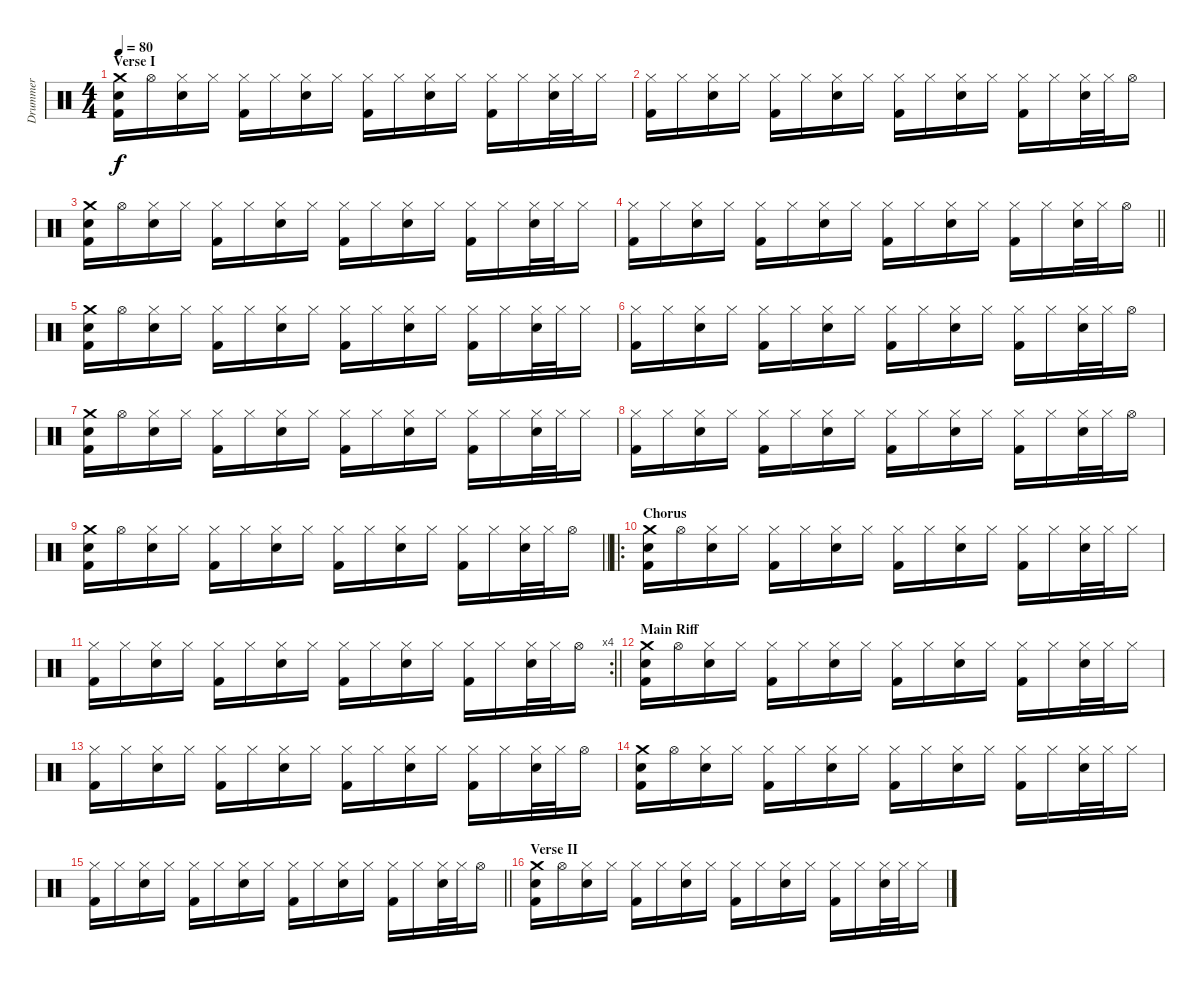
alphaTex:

\track ("Drummer" "Drummer") {instrument percussion}
\staff {score}
\articulation defaults
\ts (4 4)
\section ("" "Verse I")
\tempo 80
\clef neutral
\ks c
("Kick (hit) 2" "Electric Snare (hit)" "Crash medium (hit)").16{dy f} "Hi-Hat (open)".16 ("Electric Snare (hit)" "Hi-Hat (closed)").16 "Hi-Hat (closed)".16 ("Kick (hit) 2" "Hi-Hat (closed)").16 "Hi-Hat (closed)".16 ("Electric Snare (hit)" "Hi-Hat (closed)").16 "Hi-Hat (closed)".16 ("Kick (hit) 2" "Hi-Hat (closed)").16 "Hi-Hat (closed)".16 ("Electric Snare (hit)" "Hi-Hat (closed)").16 "Hi-Hat (closed)".16 ("Kick (hit) 2" "Hi-Hat (closed)").16 "Hi-Hat (closed)".16 ("Electric Snare (hit)" "Hi-Hat (closed)").32 "Hi-Hat (closed)".32 "Hi-Hat (closed)".16 |
("Kick (hit) 2" "Hi-Hat (closed)").16 "Hi-Hat (closed)".16 ("Electric Snare (hit)" "Hi-Hat (closed)").16 "Hi-Hat (closed)".16 ("Kick (hit) 2" "Hi-Hat (closed)").16 "Hi-Hat (closed)".16 ("Electric Snare (hit)" "Hi-Hat (closed)").16 "Hi-Hat (closed)".16 ("Kick (hit) 2" "Hi-Hat (closed)").16 "Hi-Hat (closed)".16 ("Electric Snare (hit)" "Hi-Hat (closed)").16 "Hi-Hat (closed)".16 ("Kick (hit) 2" "Hi-Hat (closed)").16 "Hi-Hat (closed)".16 ("Electric Snare (hit)" "Hi-Hat (closed)").32 "Hi-Hat (closed)".32 "Hi-Hat (open)".16 |
("Kick (hit) 2" "Electric Snare (hit)" "Crash medium (hit)").16 "Hi-Hat (open)".16 ("Electric Snare (hit)" "Hi-Hat (closed)").16 "Hi-Hat (closed)".16 ("Kick (hit) 2" "Hi-Hat (closed)").16 "Hi-Hat (closed)".16 ("Electric Snare (hit)" "Hi-Hat (closed)").16 "Hi-Hat (closed)".16 ("Kick (hit) 2" "Hi-Hat (closed)").16 "Hi-Hat (closed)".16 ("Electric Snare (hit)" "Hi-Hat (closed)").16 "Hi-Hat (closed)".16 ("Kick (hit) 2" "Hi-Hat (closed)").16 "Hi-Hat (closed)".16 ("Electric Snare (hit)" "Hi-Hat (closed)").32 "Hi-Hat (closed)".32 "Hi-Hat (closed)".16 |
\barLineRight lightlight
("Kick (hit) 2" "Hi-Hat (closed)").16 "Hi-Hat (closed)".16 ("Electric Snare (hit)" "Hi-Hat (closed)").16 "Hi-Hat (closed)".16 ("Kick (hit) 2" "Hi-Hat (closed)").16 "Hi-Hat (closed)".16 ("Electric Snare (hit)" "Hi-Hat (closed)").16 "Hi-Hat (closed)".16 ("Kick (hit) 2" "Hi-Hat (closed)").16 "Hi-Hat (closed)".16 ("Electric Snare (hit)" "Hi-Hat (closed)").16 "Hi-Hat (closed)".16 ("Kick (hit) 2" "Hi-Hat (closed)").16 "Hi-Hat (closed)".16 ("Electric Snare (hit)" "Hi-Hat (closed)").32 "Hi-Hat (closed)".32 "Hi-Hat (open)".16 |
("Kick (hit) 2" "Electric Snare (hit)" "Crash medium (hit)").16 "Hi-Hat (open)".16 ("Electric Snare (hit)" "Hi-Hat (closed)").16 "Hi-Hat (closed)".16 ("Kick (hit) 2" "Hi-Hat (closed)").16 "Hi-Hat (closed)".16 ("Electric Snare (hit)" "Hi-Hat (closed)").16 "Hi-Hat (closed)".16 ("Kick (hit) 2" "Hi-Hat (closed)").16 "Hi-Hat (closed)".16 ("Electric Snare (hit)" "Hi-Hat (closed)").16 "Hi-Hat (closed)".16 ("Kick (hit) 2" "Hi-Hat (closed)").16 "Hi-Hat (closed)".16 ("Electric Snare (hit)" "Hi-Hat (closed)").32 "Hi-Hat (closed)".32 "Hi-Hat (closed)".16 |
("Kick (hit) 2" "Hi-Hat (closed)").16 "Hi-Hat (closed)".16 ("Electric Snare (hit)" "Hi-Hat (closed)").16 "Hi-Hat (closed)".16 ("Kick (hit) 2" "Hi-Hat (closed)").16 "Hi-Hat (closed)".16 ("Electric Snare (hit)" "Hi-Hat (closed)").16 "Hi-Hat (closed)".16 ("Kick (hit) 2" "Hi-Hat (closed)").16 "Hi-Hat (closed)".16 ("Electric Snare (hit)" "Hi-Hat (closed)").16 "Hi-Hat (closed)".16 ("Kick (hit) 2" "Hi-Hat (closed)").16 "Hi-Hat (closed)".16 ("Electric Snare (hit)" "Hi-Hat (closed)").32 "Hi-Hat (closed)".32 "Hi-Hat (open)".16 |
("Kick (hit) 2" "Electric Snare (hit)" "Crash medium (hit)").16 "Hi-Hat (open)".16 ("Electric Snare (hit)" "Hi-Hat (closed)").16 "Hi-Hat (closed)".16 ("Kick (hit) 2" "Hi-Hat (closed)").16 "Hi-Hat (closed)".16 ("Electric Snare (hit)" "Hi-Hat (closed)").16 "Hi-Hat (closed)".16 ("Kick (hit) 2" "Hi-Hat (closed)").16 "Hi-Hat (closed)".16 ("Electric Snare (hit)" "Hi-Hat (closed)").16 "Hi-Hat (closed)".16 ("Kick (hit) 2" "Hi-Hat (closed)").16 "Hi-Hat (closed)".16 ("Electric Snare (hit)" "Hi-Hat (closed)").32 "Hi-Hat (closed)".32 "Hi-Hat (closed)".16 |
("Kick (hit) 2" "Hi-Hat (closed)").16 "Hi-Hat (closed)".16 ("Electric Snare (hit)" "Hi-Hat (closed)").16 "Hi-Hat (closed)".16 ("Kick (hit) 2" "Hi-Hat (closed)").16 "Hi-Hat (closed)".16 ("Electric Snare (hit)" "Hi-Hat (closed)").16 "Hi-Hat (closed)".16 ("Kick (hit) 2" "Hi-Hat (closed)").16 "Hi-Hat (closed)".16 ("Electric Snare (hit)" "Hi-Hat (closed)").16 "Hi-Hat (closed)".16 ("Kick (hit) 2" "Hi-Hat (closed)").16 "Hi-Hat (closed)".16 ("Electric Snare (hit)" "Hi-Hat (closed)").32 "Hi-Hat (closed)".32 "Hi-Hat (open)".16 |
\barLineRight lightlight
("Kick (hit) 2" "Electric Snare (hit)" "Crash medium (hit)").16 "Hi-Hat (open)".16 ("Electric Snare (hit)" "Hi-Hat (closed)").16 "Hi-Hat (closed)".16 ("Kick (hit) 2" "Hi-Hat (closed)").16 "Hi-Hat (closed)".16 ("Electric Snare (hit)" "Hi-Hat (closed)").16 "Hi-Hat (closed)".16 ("Kick (hit) 2" "Hi-Hat (closed)").16 "Hi-Hat (closed)".16 ("Electric Snare (hit)" "Hi-Hat (closed)").16 "Hi-Hat (closed)".16 ("Kick (hit) 2" "Hi-Hat (closed)").16 "Hi-Hat (closed)".16 ("Electric Snare (hit)" "Hi-Hat (closed)").32 "Hi-Hat (closed)".32 "Hi-Hat (open)".16 |
\ro
\section ("" "Chorus")
("Kick (hit) 2" "Electric Snare (hit)" "Crash medium (hit)").16 "Hi-Hat (open)".16 ("Electric Snare (hit)" "Hi-Hat (closed)").16 "Hi-Hat (closed)".16 ("Kick (hit) 2" "Hi-Hat (closed)").16 "Hi-Hat (closed)".16 ("Electric Snare (hit)" "Hi-Hat (closed)").16 "Hi-Hat (closed)".16 ("Kick (hit) 2" "Hi-Hat (closed)").16 "Hi-Hat (closed)".16 ("Electric Snare (hit)" "Hi-Hat (closed)").16 "Hi-Hat (closed)".16 ("Kick (hit) 2" "Hi-Hat (closed)").16 "Hi-Hat (closed)".16 ("Electric Snare (hit)" "Hi-Hat (closed)").32 "Hi-Hat (closed)".32 "Hi-Hat (closed)".16 |
\rc 4
\barLineRight lightlight
("Kick (hit) 2" "Hi-Hat (closed)").16 "Hi-Hat (closed)".16 ("Electric Snare (hit)" "Hi-Hat (closed)").16 "Hi-Hat (closed)".16 ("Kick (hit) 2" "Hi-Hat (closed)").16 "Hi-Hat (closed)".16 ("Electric Snare (hit)" "Hi-Hat (closed)").16 "Hi-Hat (closed)".16 ("Kick (hit) 2" "Hi-Hat (closed)").16 "Hi-Hat (closed)".16 ("Electric Snare (hit)" "Hi-Hat (closed)").16 "Hi-Hat (closed)".16 ("Kick (hit) 2" "Hi-Hat (closed)").16 "Hi-Hat (closed)".16 ("Electric Snare (hit)" "Hi-Hat (closed)").32 "Hi-Hat (closed)".32 "Hi-Hat (open)".16 |
\section ("" "Main Riff")
("Kick (hit) 2" "Electric Snare (hit)" "Crash medium (hit)").16 "Hi-Hat (open)".16 ("Electric Snare (hit)" "Hi-Hat (closed)").16 "Hi-Hat (closed)".16 ("Kick (hit) 2" "Hi-Hat (closed)").16 "Hi-Hat (closed)".16 ("Electric Snare (hit)" "Hi-Hat (closed)").16 "Hi-Hat (closed)".16 ("Kick (hit) 2" "Hi-Hat (closed)").16 "Hi-Hat (closed)".16 ("Electric Snare (hit)" "Hi-Hat (closed)").16 "Hi-Hat (closed)".16 ("Kick (hit) 2" "Hi-Hat (closed)").16 "Hi-Hat (closed)".16 ("Electric Snare (hit)" "Hi-Hat (closed)").32 "Hi-Hat (closed)".32 "Hi-Hat (closed)".16 |
("Kick (hit) 2" "Hi-Hat (closed)").16 "Hi-Hat (closed)".16 ("Electric Snare (hit)" "Hi-Hat (closed)").16 "Hi-Hat (closed)".16 ("Kick (hit) 2" "Hi-Hat (closed)").16 "Hi-Hat (closed)".16 ("Electric Snare (hit)" "Hi-Hat (closed)").16 "Hi-Hat (closed)".16 ("Kick (hit) 2" "Hi-Hat (closed)").16 "Hi-Hat (closed)".16 ("Electric Snare (hit)" "Hi-Hat (closed)").16 "Hi-Hat (closed)".16 ("Kick (hit) 2" "Hi-Hat (closed)").16 "Hi-Hat (closed)".16 ("Electric Snare (hit)" "Hi-Hat (closed)").32 "Hi-Hat (closed)".32 "Hi-Hat (open)".16 |
("Kick (hit) 2" "Electric Snare (hit)" "Crash medium (hit)").16 "Hi-Hat (open)".16 ("Electric Snare (hit)" "Hi-Hat (closed)").16 "Hi-Hat (closed)".16 ("Kick (hit) 2" "Hi-Hat (closed)").16 "Hi-Hat (closed)".16 ("Electric Snare (hit)" "Hi-Hat (closed)").16 "Hi-Hat (closed)".16 ("Kick (hit) 2" "Hi-Hat (closed)").16 "Hi-Hat (closed)".16 ("Electric Snare (hit)" "Hi-Hat (closed)").16 "Hi-Hat (closed)".16 ("Kick (hit) 2" "Hi-Hat (closed)").16 "Hi-Hat (closed)".16 ("Electric Snare (hit)" "Hi-Hat (closed)").32 "Hi-Hat (closed)".32 "Hi-Hat (closed)".16 |
\barLineRight lightlight
("Kick (hit) 2" "Hi-Hat (closed)").16 "Hi-Hat (closed)".16 ("Electric Snare (hit)" "Hi-Hat (closed)").16 "Hi-Hat (closed)".16 ("Kick (hit) 2" "Hi-Hat (closed)").16 "Hi-Hat (closed)".16 ("Electric Snare (hit)" "Hi-Hat (closed)").16 "Hi-Hat (closed)".16 ("Kick (hit) 2" "Hi-Hat (closed)").16 "Hi-Hat (closed)".16 ("Electric Snare (hit)" "Hi-Hat (closed)").16 "Hi-Hat (closed)".16 ("Kick (hit) 2" "Hi-Hat (closed)").16 "Hi-Hat (closed)".16 ("Electric Snare (hit)" "Hi-Hat (closed)").32 "Hi-Hat (closed)".32 "Hi-Hat (open)".16 |
\section ("" "Verse II")
("Kick (hit) 2" "Electric Snare (hit)" "Crash medium (hit)").16 "Hi-Hat (open)".16 ("Electric Snare (hit)" "Hi-Hat (closed)").16 "Hi-Hat (closed)".16 ("Kick (hit) 2" "Hi-Hat (closed)").16 "Hi-Hat (closed)".16 ("Electric Snare (hit)" "Hi-Hat (closed)").16 "Hi-Hat (closed)".16 ("Kick (hit) 2" "Hi-Hat (closed)").16 "Hi-Hat (closed)".16 ("Electric Snare (hit)" "Hi-Hat (closed)").16 "Hi-Hat (closed)".16 ("Kick (hit) 2" "Hi-Hat (closed)").16 "Hi-Hat (closed)".16 ("Electric Snare (hit)" "Hi-Hat (closed)").32 "Hi-Hat (closed)".32 "Hi-Hat (closed)".16
